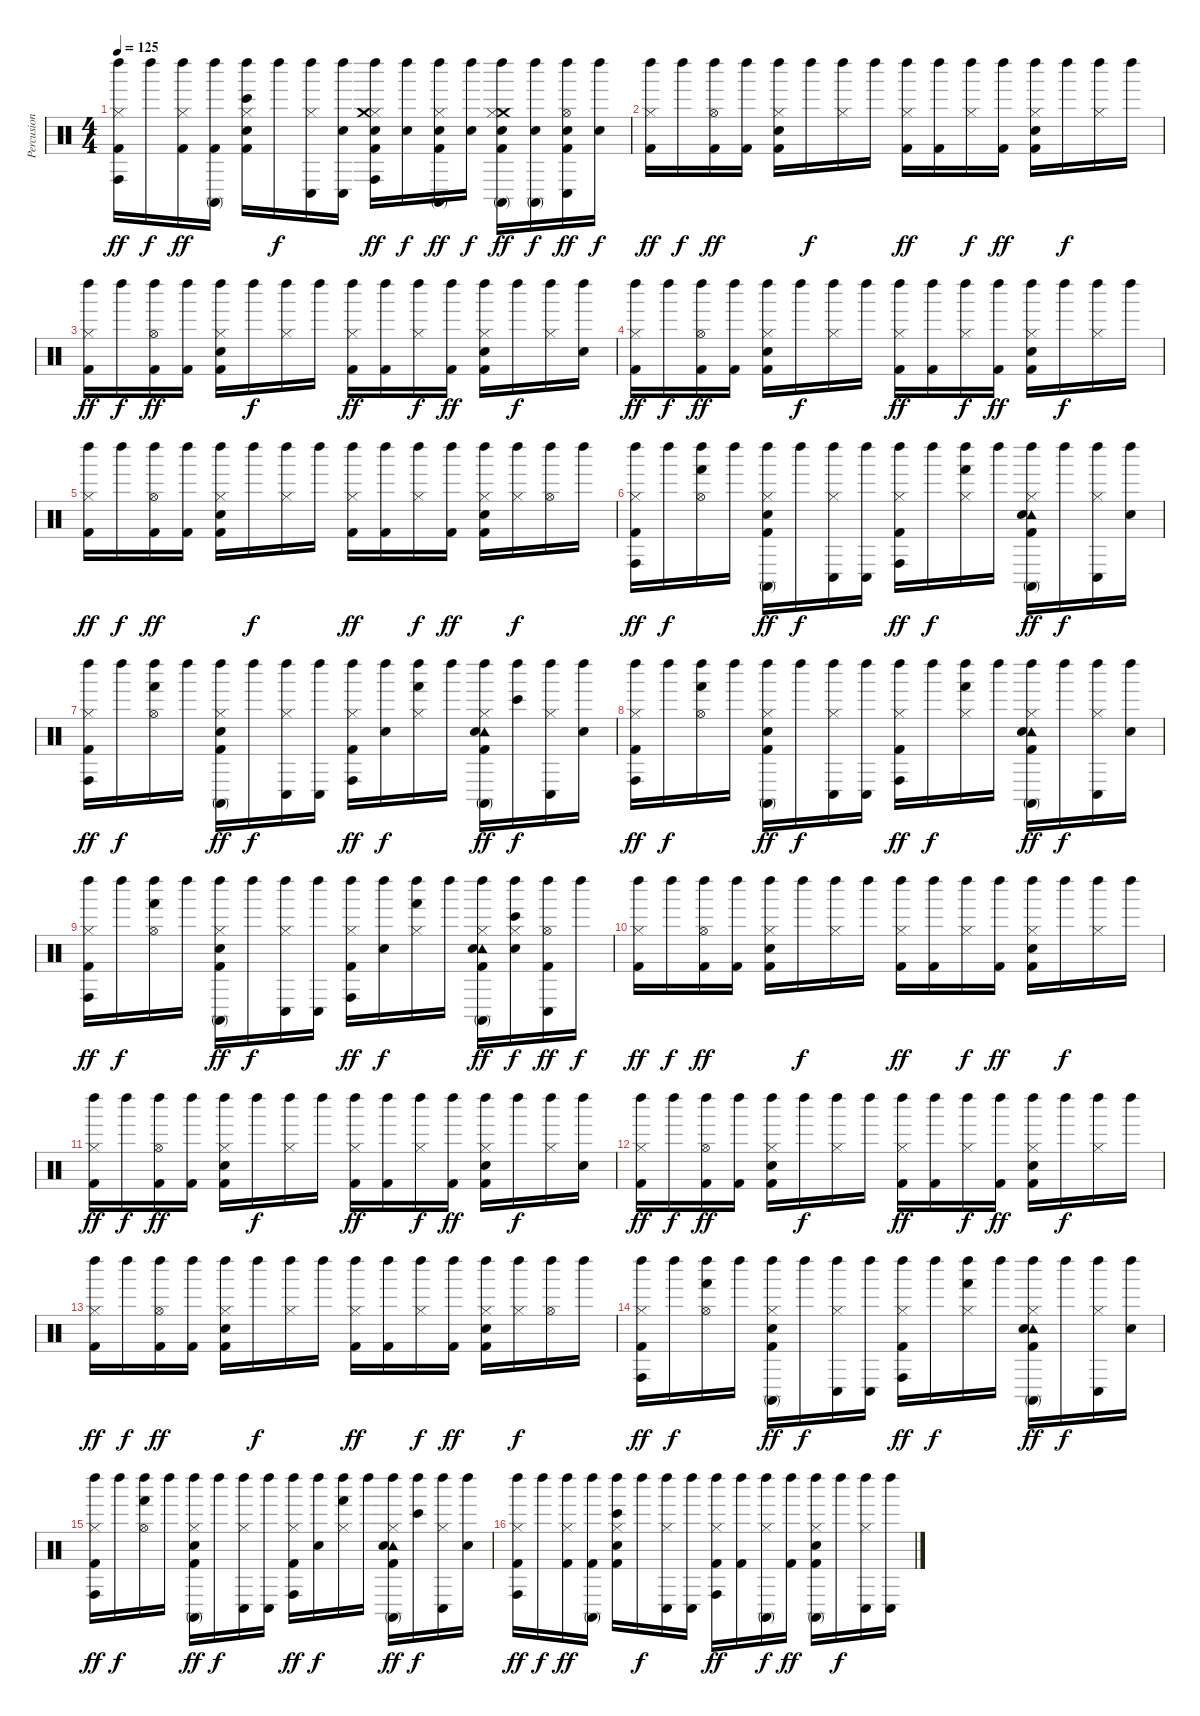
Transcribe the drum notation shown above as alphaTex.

\track ("Percusion" "Percusion") {instrument percussion}
\staff {score}
\articulation defaults
\ts (4 4)
\tempo 125
\clef neutral
\ks c
("Left Maraca (hit)" "Hi-Hat (closed)" "Conga high (hit)" "Kick (hit) 2").16{dy ff} "Left Maraca (hit)".16{dy f} ("Left Maraca (hit)" "Hi-Hat (closed)" "Kick (hit) 2").16{dy ff} ("Left Maraca (hit)" "Conga high (mute)" "Kick (hit) 2").16 ("Electric Snare (hit)" "Left Maraca (hit)" "Hi-Hat (closed)" "Bongo High (hit)" "Kick (hit) 2").16 "Left Maraca (hit)".16{dy f} ("Left Maraca (hit)" "Hi-Hat (closed)" "Conga low (hit)").16 ("Conga low (hit)" "Left Maraca (hit)" "Electric Snare (hit)").16 ("Electric Snare (hit)" "Left Maraca (hit)" "Hi-Hat (closed)" "Crash medium (hit)" "Conga high (hit)" "Kick (hit) 2").16{dy ff} ("Electric Snare (hit)" "Left Maraca (hit)").16{dy f} ("Conga high (mute)" "Left Maraca (hit)" "Hi-Hat (closed)" "Electric Snare (hit)" "Kick (hit) 2").16{dy ff} ("Electric Snare (hit)" "Left Maraca (hit)").16{dy f} ("Crash medium (hit)" "Conga high (mute)" "Left Maraca (hit)" "Hi-Hat (closed)" "Electric Snare (hit)" "Kick (hit) 2").16{dy ff} ("Electric Snare (hit)" "Left Maraca (hit)" "Conga high (mute)").16{dy f} ("Conga low (hit)" "Left Maraca (hit)" "Hi-Hat (open)" "Electric Snare (hit)" "Kick (hit) 2").16{dy ff} ("Electric Snare (hit)" "Left Maraca (hit)").16{dy f} |
("Left Maraca (hit)" "Hi-Hat (closed)" "Kick (hit) 2").16{dy ff} "Left Maraca (hit)".16{dy f} ("Left Maraca (hit)" "Hi-Hat (open)" "Kick (hit) 2").16{dy ff} ("Kick (hit) 2" "Left Maraca (hit)").16 ("Left Maraca (hit)" "Hi-Hat (closed)" "Kick (hit) 2" "Electric Snare (hit)").16 "Left Maraca (hit)".16{dy f} ("Left Maraca (hit)" "Hi-Hat (closed)").16 "Left Maraca (hit)".16 ("Left Maraca (hit)" "Hi-Hat (closed)" "Kick (hit) 2").16{dy ff} ("Kick (hit) 2" "Left Maraca (hit)").16 ("Left Maraca (hit)" "Hi-Hat (closed)").16{dy f} ("Left Maraca (hit)" "Kick (hit) 2").16{dy ff} ("Kick (hit) 2" "Electric Snare (hit)" "Left Maraca (hit)" "Hi-Hat (closed)").16 "Left Maraca (hit)".16{dy f} ("Left Maraca (hit)" "Hi-Hat (closed)").16 "Left Maraca (hit)".16 |
("Left Maraca (hit)" "Hi-Hat (closed)" "Kick (hit) 2").16{dy ff} "Left Maraca (hit)".16{dy f} ("Left Maraca (hit)" "Hi-Hat (open)" "Kick (hit) 2").16{dy ff} ("Kick (hit) 2" "Left Maraca (hit)").16 ("Left Maraca (hit)" "Hi-Hat (closed)" "Kick (hit) 2" "Electric Snare (hit)").16 "Left Maraca (hit)".16{dy f} ("Left Maraca (hit)" "Hi-Hat (closed)").16 "Left Maraca (hit)".16 ("Left Maraca (hit)" "Hi-Hat (closed)" "Kick (hit) 2").16{dy ff} ("Kick (hit) 2" "Left Maraca (hit)").16 ("Left Maraca (hit)" "Hi-Hat (closed)").16{dy f} ("Left Maraca (hit)" "Kick (hit) 2").16{dy ff} ("Kick (hit) 2" "Electric Snare (hit)" "Left Maraca (hit)" "Hi-Hat (closed)").16 "Left Maraca (hit)".16{dy f} ("Left Maraca (hit)" "Hi-Hat (closed)").16 ("Left Maraca (hit)" "Electric Snare (hit)").16 |
("Kick (hit) 2" "Left Maraca (hit)" "Hi-Hat (closed)").16{dy ff} "Left Maraca (hit)".16{dy f} ("Left Maraca (hit)" "Hi-Hat (open)" "Kick (hit) 2").16{dy ff} ("Kick (hit) 2" "Left Maraca (hit)").16 ("Left Maraca (hit)" "Hi-Hat (closed)" "Kick (hit) 2" "Electric Snare (hit)").16 "Left Maraca (hit)".16{dy f} ("Left Maraca (hit)" "Hi-Hat (closed)").16 "Left Maraca (hit)".16 ("Left Maraca (hit)" "Hi-Hat (closed)" "Kick (hit) 2").16{dy ff} ("Kick (hit) 2" "Left Maraca (hit)").16 ("Left Maraca (hit)" "Hi-Hat (closed)").16{dy f} ("Left Maraca (hit)" "Kick (hit) 2").16{dy ff} ("Kick (hit) 2" "Electric Snare (hit)" "Left Maraca (hit)" "Hi-Hat (closed)").16 "Left Maraca (hit)".16{dy f} ("Left Maraca (hit)" "Hi-Hat (closed)").16 "Left Maraca (hit)".16 |
("Left Maraca (hit)" "Hi-Hat (closed)" "Kick (hit) 2").16{dy ff} "Left Maraca (hit)".16{dy f} ("Left Maraca (hit)" "Hi-Hat (open)" "Kick (hit) 2").16{dy ff} ("Kick (hit) 2" "Left Maraca (hit)").16 ("Left Maraca (hit)" "Hi-Hat (closed)" "Kick (hit) 2" "Electric Snare (hit)").16 "Left Maraca (hit)".16{dy f} ("Left Maraca (hit)" "Hi-Hat (closed)").16 "Left Maraca (hit)".16 ("Left Maraca (hit)" "Hi-Hat (closed)" "Kick (hit) 2").16{dy ff} ("Kick (hit) 2" "Left Maraca (hit)").16 ("Left Maraca (hit)" "Hi-Hat (closed)").16{dy f} ("Left Maraca (hit)" "Kick (hit) 2").16{dy ff} ("Kick (hit) 2" "Electric Snare (hit)" "Left Maraca (hit)" "Hi-Hat (closed)").16 ("Left Maraca (hit)" "Hi-Hat (closed)").16{dy f} ("Left Maraca (hit)" "Hi-Hat (open)").16 "Left Maraca (hit)".16 |
("Left Maraca (hit)" "Hi-Hat (closed)" "Conga high (hit)" "Kick (hit) 2").16{dy ff} "Left Maraca (hit)".16{dy f} ("Left Maraca (hit)" "Hi-Hat (open)" "Hand (hit)").16 "Left Maraca (hit)".16 ("Left Maraca (hit)" "Hi-Hat (closed)" "Conga high (mute)" "Kick (hit) 2" "Electric Snare (hit)").16{dy ff} "Left Maraca (hit)".16{dy f} ("Left Maraca (hit)" "Hi-Hat (closed)" "Conga low (hit)").16 ("Conga low (hit)" "Left Maraca (hit)").16 ("Left Maraca (hit)" "Hi-Hat (closed)" "Conga high (hit)" "Kick (hit) 2").16{dy ff} "Left Maraca (hit)".16{dy f} ("Left Maraca (hit)" "Hi-Hat (closed)" "Hand (hit)").16 "Left Maraca (hit)".16 ("Left Maraca (hit)" "Hi-Hat (closed)" "Conga high (mute)" "Tambourine (hit)" "Kick (hit) 2" "Electric Snare (hit)").16{dy ff} "Left Maraca (hit)".16{dy f} ("Left Maraca (hit)" "Hi-Hat (closed)" "Conga low (hit)").16 ("Left Maraca (hit)" "Electric Snare (hit)").16 |
("Kick (hit) 2" "Left Maraca (hit)" "Hi-Hat (closed)" "Conga high (hit)").16{dy ff} "Left Maraca (hit)".16{dy f} ("Left Maraca (hit)" "Hi-Hat (open)" "Hand (hit)").16 "Left Maraca (hit)".16 ("Left Maraca (hit)" "Hi-Hat (closed)" "Conga high (mute)" "Kick (hit) 2" "Electric Snare (hit)").16{dy ff} "Left Maraca (hit)".16{dy f} ("Left Maraca (hit)" "Hi-Hat (closed)" "Conga low (hit)").16 ("Conga low (hit)" "Left Maraca (hit)").16 ("Left Maraca (hit)" "Hi-Hat (closed)" "Conga high (hit)" "Kick (hit) 2").16{dy ff} ("Electric Snare (hit)" "Left Maraca (hit)").16{dy f} ("Left Maraca (hit)" "Hi-Hat (closed)" "Hand (hit)").16 "Left Maraca (hit)".16 ("Left Maraca (hit)" "Hi-Hat (closed)" "Conga high (mute)" "Tambourine (hit)" "Electric Snare (hit)" "Kick (hit) 2").16{dy ff} ("Bongo High (hit)" "Left Maraca (hit)").16{dy f} ("Left Maraca (hit)" "Hi-Hat (closed)" "Conga low (hit)").16 ("Left Maraca (hit)" "Electric Snare (hit)").16 |
("Kick (hit) 2" "Left Maraca (hit)" "Hi-Hat (closed)" "Conga high (hit)").16{dy ff} "Left Maraca (hit)".16{dy f} ("Left Maraca (hit)" "Hi-Hat (open)" "Hand (hit)").16 "Left Maraca (hit)".16 ("Left Maraca (hit)" "Hi-Hat (closed)" "Conga high (mute)" "Kick (hit) 2" "Electric Snare (hit)").16{dy ff} "Left Maraca (hit)".16{dy f} ("Left Maraca (hit)" "Hi-Hat (closed)" "Conga low (hit)").16 ("Conga low (hit)" "Left Maraca (hit)").16 ("Left Maraca (hit)" "Hi-Hat (closed)" "Conga high (hit)" "Kick (hit) 2").16{dy ff} "Left Maraca (hit)".16{dy f} ("Left Maraca (hit)" "Hi-Hat (closed)" "Hand (hit)").16 "Left Maraca (hit)".16 ("Left Maraca (hit)" "Hi-Hat (closed)" "Conga high (mute)" "Tambourine (hit)" "Kick (hit) 2" "Electric Snare (hit)").16{dy ff} "Left Maraca (hit)".16{dy f} ("Left Maraca (hit)" "Hi-Hat (closed)" "Conga low (hit)").16 ("Left Maraca (hit)" "Electric Snare (hit)").16 |
("Kick (hit) 2" "Left Maraca (hit)" "Hi-Hat (closed)" "Conga high (hit)").16{dy ff} "Left Maraca (hit)".16{dy f} ("Left Maraca (hit)" "Hi-Hat (open)" "Hand (hit)").16 "Left Maraca (hit)".16 ("Left Maraca (hit)" "Hi-Hat (closed)" "Conga high (mute)" "Kick (hit) 2" "Electric Snare (hit)").16{dy ff} "Left Maraca (hit)".16{dy f} ("Left Maraca (hit)" "Hi-Hat (closed)" "Conga low (hit)").16 ("Conga low (hit)" "Left Maraca (hit)").16 ("Left Maraca (hit)" "Hi-Hat (closed)" "Conga high (hit)" "Kick (hit) 2").16{dy ff} ("Electric Snare (hit)" "Left Maraca (hit)").16{dy f} ("Left Maraca (hit)" "Hi-Hat (closed)" "Hand (hit)").16 "Left Maraca (hit)".16 ("Left Maraca (hit)" "Hi-Hat (closed)" "Conga high (mute)" "Tambourine (hit)" "Electric Snare (hit)" "Kick (hit) 2").16{dy ff} ("Electric Snare (hit)" "Bongo High (hit)" "Left Maraca (hit)" "Hi-Hat (closed)").16{dy f} ("Left Maraca (hit)" "Hi-Hat (open)" "Conga low (hit)" "Kick (hit) 2").16{dy ff} "Left Maraca (hit)".16{dy f} |
("Left Maraca (hit)" "Hi-Hat (closed)" "Kick (hit) 2").16{dy ff} "Left Maraca (hit)".16{dy f} ("Left Maraca (hit)" "Hi-Hat (open)" "Kick (hit) 2").16{dy ff} ("Kick (hit) 2" "Left Maraca (hit)").16 ("Left Maraca (hit)" "Hi-Hat (closed)" "Kick (hit) 2" "Electric Snare (hit)").16 "Left Maraca (hit)".16{dy f} ("Left Maraca (hit)" "Hi-Hat (closed)").16 "Left Maraca (hit)".16 ("Left Maraca (hit)" "Hi-Hat (closed)" "Kick (hit) 2").16{dy ff} ("Kick (hit) 2" "Left Maraca (hit)").16 ("Left Maraca (hit)" "Hi-Hat (closed)").16{dy f} ("Left Maraca (hit)" "Kick (hit) 2").16{dy ff} ("Kick (hit) 2" "Electric Snare (hit)" "Left Maraca (hit)" "Hi-Hat (closed)").16 "Left Maraca (hit)".16{dy f} ("Left Maraca (hit)" "Hi-Hat (closed)").16 "Left Maraca (hit)".16 |
("Left Maraca (hit)" "Hi-Hat (closed)" "Kick (hit) 2").16{dy ff} "Left Maraca (hit)".16{dy f} ("Left Maraca (hit)" "Hi-Hat (open)" "Kick (hit) 2").16{dy ff} ("Kick (hit) 2" "Left Maraca (hit)").16 ("Left Maraca (hit)" "Hi-Hat (closed)" "Kick (hit) 2" "Electric Snare (hit)").16 "Left Maraca (hit)".16{dy f} ("Left Maraca (hit)" "Hi-Hat (closed)").16 "Left Maraca (hit)".16 ("Left Maraca (hit)" "Hi-Hat (closed)" "Kick (hit) 2").16{dy ff} ("Kick (hit) 2" "Left Maraca (hit)").16 ("Left Maraca (hit)" "Hi-Hat (closed)").16{dy f} ("Left Maraca (hit)" "Kick (hit) 2").16{dy ff} ("Kick (hit) 2" "Electric Snare (hit)" "Left Maraca (hit)" "Hi-Hat (closed)").16 "Left Maraca (hit)".16{dy f} ("Left Maraca (hit)" "Hi-Hat (closed)").16 ("Left Maraca (hit)" "Electric Snare (hit)").16 |
("Kick (hit) 2" "Left Maraca (hit)" "Hi-Hat (closed)").16{dy ff} "Left Maraca (hit)".16{dy f} ("Left Maraca (hit)" "Hi-Hat (open)" "Kick (hit) 2").16{dy ff} ("Kick (hit) 2" "Left Maraca (hit)").16 ("Left Maraca (hit)" "Hi-Hat (closed)" "Kick (hit) 2" "Electric Snare (hit)").16 "Left Maraca (hit)".16{dy f} ("Left Maraca (hit)" "Hi-Hat (closed)").16 "Left Maraca (hit)".16 ("Left Maraca (hit)" "Hi-Hat (closed)" "Kick (hit) 2").16{dy ff} ("Kick (hit) 2" "Left Maraca (hit)").16 ("Left Maraca (hit)" "Hi-Hat (closed)").16{dy f} ("Left Maraca (hit)" "Kick (hit) 2").16{dy ff} ("Kick (hit) 2" "Electric Snare (hit)" "Left Maraca (hit)" "Hi-Hat (closed)").16 "Left Maraca (hit)".16{dy f} ("Left Maraca (hit)" "Hi-Hat (closed)").16 "Left Maraca (hit)".16 |
("Left Maraca (hit)" "Hi-Hat (closed)" "Kick (hit) 2").16{dy ff} "Left Maraca (hit)".16{dy f} ("Left Maraca (hit)" "Hi-Hat (open)" "Kick (hit) 2").16{dy ff} ("Kick (hit) 2" "Left Maraca (hit)").16 ("Left Maraca (hit)" "Hi-Hat (closed)" "Kick (hit) 2" "Electric Snare (hit)").16 "Left Maraca (hit)".16{dy f} ("Left Maraca (hit)" "Hi-Hat (closed)").16 "Left Maraca (hit)".16 ("Left Maraca (hit)" "Hi-Hat (closed)" "Kick (hit) 2").16{dy ff} ("Kick (hit) 2" "Left Maraca (hit)").16 ("Left Maraca (hit)" "Hi-Hat (closed)").16{dy f} ("Left Maraca (hit)" "Kick (hit) 2").16{dy ff} ("Kick (hit) 2" "Electric Snare (hit)" "Left Maraca (hit)" "Hi-Hat (closed)").16 ("Left Maraca (hit)" "Hi-Hat (closed)").16{dy f} ("Left Maraca (hit)" "Hi-Hat (open)").16 "Left Maraca (hit)".16 |
("Left Maraca (hit)" "Hi-Hat (closed)" "Conga high (hit)" "Kick (hit) 2").16{dy ff} "Left Maraca (hit)".16{dy f} ("Left Maraca (hit)" "Hi-Hat (open)" "Hand (hit)").16 "Left Maraca (hit)".16 ("Left Maraca (hit)" "Hi-Hat (closed)" "Conga high (mute)" "Kick (hit) 2" "Electric Snare (hit)").16{dy ff} "Left Maraca (hit)".16{dy f} ("Left Maraca (hit)" "Hi-Hat (closed)" "Conga low (hit)").16 ("Conga low (hit)" "Left Maraca (hit)").16 ("Left Maraca (hit)" "Hi-Hat (closed)" "Conga high (hit)" "Kick (hit) 2").16{dy ff} "Left Maraca (hit)".16{dy f} ("Left Maraca (hit)" "Hi-Hat (closed)" "Hand (hit)").16 "Left Maraca (hit)".16 ("Left Maraca (hit)" "Hi-Hat (closed)" "Conga high (mute)" "Tambourine (hit)" "Kick (hit) 2" "Electric Snare (hit)").16{dy ff} "Left Maraca (hit)".16{dy f} ("Left Maraca (hit)" "Hi-Hat (closed)" "Conga low (hit)").16 ("Left Maraca (hit)" "Electric Snare (hit)").16 |
("Kick (hit) 2" "Left Maraca (hit)" "Hi-Hat (closed)" "Conga high (hit)").16{dy ff} "Left Maraca (hit)".16{dy f} ("Left Maraca (hit)" "Hi-Hat (open)" "Hand (hit)").16 "Left Maraca (hit)".16 ("Left Maraca (hit)" "Hi-Hat (closed)" "Conga high (mute)" "Kick (hit) 2" "Electric Snare (hit)").16{dy ff} "Left Maraca (hit)".16{dy f} ("Left Maraca (hit)" "Hi-Hat (closed)" "Conga low (hit)").16 ("Conga low (hit)" "Left Maraca (hit)").16 ("Left Maraca (hit)" "Hi-Hat (closed)" "Conga high (hit)" "Kick (hit) 2").16{dy ff} ("Electric Snare (hit)" "Left Maraca (hit)").16{dy f} ("Left Maraca (hit)" "Hi-Hat (closed)" "Hand (hit)").16 "Left Maraca (hit)".16 ("Left Maraca (hit)" "Hi-Hat (closed)" "Conga high (mute)" "Tambourine (hit)" "Electric Snare (hit)" "Kick (hit) 2").16{dy ff} ("Bongo High (hit)" "Left Maraca (hit)").16{dy f} ("Left Maraca (hit)" "Hi-Hat (closed)" "Conga low (hit)").16 ("Left Maraca (hit)" "Electric Snare (hit)").16 |
("Left Maraca (hit)" "Hi-Hat (closed)" "Conga high (hit)" "Kick (hit) 2").16{dy ff} "Left Maraca (hit)".16{dy f} ("Left Maraca (hit)" "Hi-Hat (closed)" "Kick (hit) 2").16{dy ff} ("Left Maraca (hit)" "Conga high (mute)" "Kick (hit) 2").16 ("Electric Snare (hit)" "Left Maraca (hit)" "Hi-Hat (closed)" "Bongo High (hit)" "Kick (hit) 2").16 "Left Maraca (hit)".16{dy f} ("Left Maraca (hit)" "Hi-Hat (closed)" "Conga low (hit)").16 ("Conga low (hit)" "Left Maraca (hit)").16 ("Left Maraca (hit)" "Hi-Hat (closed)" "Conga high (hit)" "Kick (hit) 2").16{dy ff} ("Left Maraca (hit)" "Kick (hit) 2").16 ("Left Maraca (hit)" "Hi-Hat (closed)" "Conga high (mute)").16{dy f} ("Left Maraca (hit)" "Kick (hit) 2").16{dy ff} ("Electric Snare (hit)" "Left Maraca (hit)" "Hi-Hat (closed)" "Conga high (mute)" "Kick (hit) 2").16 "Left Maraca (hit)".16{dy f} ("Left Maraca (hit)" "Hi-Hat (closed)" "Conga low (hit)").16 ("Conga low (hit)" "Left Maraca (hit)").16
